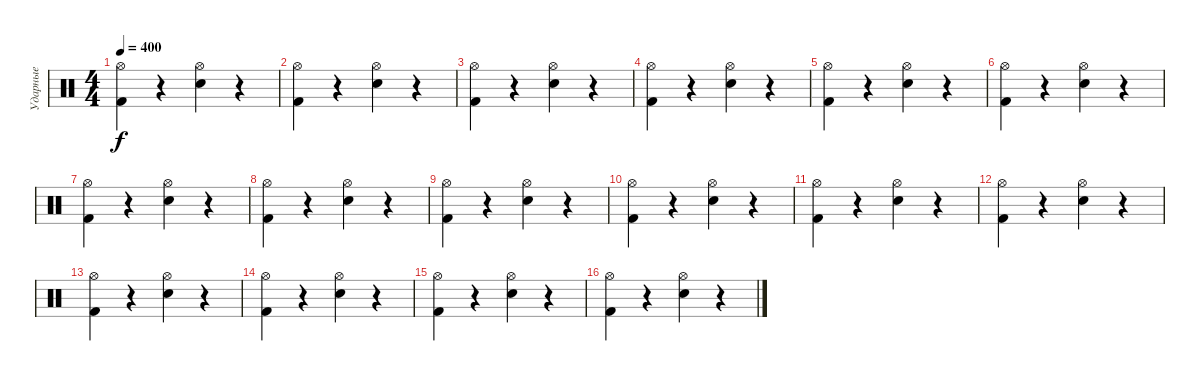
\track ("Ударные" "Ударные") {instrument percussion}
\staff {score}
\articulation defaults
\ts (4 4)
\tempo 400
\clef neutral
\ks c
("Kick (hit) 2" "Hi-Hat (open)").4{dy f} r.4 ("Electric Snare (hit)" "Hi-Hat (open)").4 r.4 |
("Kick (hit) 2" "Hi-Hat (open)").4 r.4 ("Electric Snare (hit)" "Hi-Hat (open)").4 r.4 |
("Kick (hit) 2" "Hi-Hat (open)").4 r.4 ("Electric Snare (hit)" "Hi-Hat (open)").4 r.4 |
("Kick (hit) 2" "Hi-Hat (open)").4 r.4 ("Electric Snare (hit)" "Hi-Hat (open)").4 r.4 |
("Kick (hit) 2" "Hi-Hat (open)").4 r.4 ("Electric Snare (hit)" "Hi-Hat (open)").4 r.4 |
("Kick (hit) 2" "Hi-Hat (open)").4 r.4 ("Electric Snare (hit)" "Hi-Hat (open)").4 r.4 |
("Kick (hit) 2" "Hi-Hat (open)").4 r.4 ("Electric Snare (hit)" "Hi-Hat (open)").4 r.4 |
("Kick (hit) 2" "Hi-Hat (open)").4 r.4 ("Electric Snare (hit)" "Hi-Hat (open)").4 r.4 |
("Kick (hit) 2" "Hi-Hat (open)").4 r.4 ("Electric Snare (hit)" "Hi-Hat (open)").4 r.4 |
("Kick (hit) 2" "Hi-Hat (open)").4 r.4 ("Electric Snare (hit)" "Hi-Hat (open)").4 r.4 |
("Kick (hit) 2" "Hi-Hat (open)").4 r.4 ("Electric Snare (hit)" "Hi-Hat (open)").4 r.4 |
("Hi-Hat (open)" "Kick (hit) 2").4 r.4 ("Electric Snare (hit)" "Hi-Hat (open)").4 r.4 |
("Kick (hit) 2" "Hi-Hat (open)").4 r.4 ("Electric Snare (hit)" "Hi-Hat (open)").4 r.4 |
("Kick (hit) 2" "Hi-Hat (open)").4 r.4 ("Electric Snare (hit)" "Hi-Hat (open)").4 r.4 |
("Kick (hit) 2" "Hi-Hat (open)").4 r.4 ("Electric Snare (hit)" "Hi-Hat (open)").4 r.4 |
("Kick (hit) 2" "Hi-Hat (open)").4 r.4 ("Electric Snare (hit)" "Hi-Hat (open)").4 r.4
